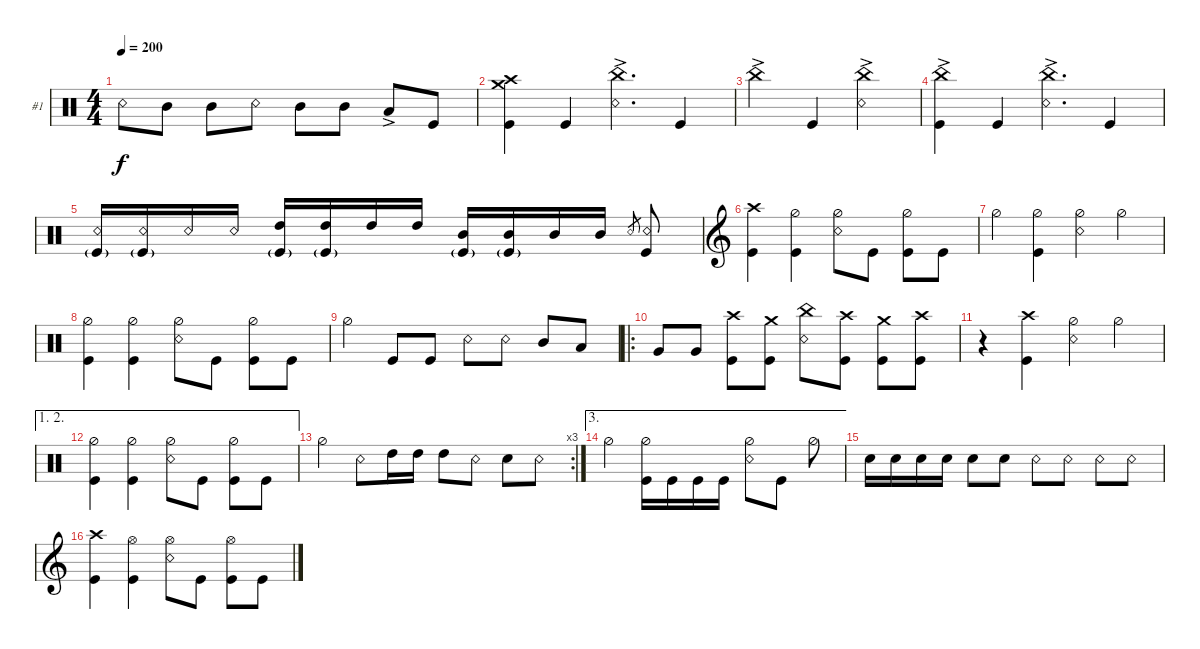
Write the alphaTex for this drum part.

\bracketExtendMode groupsimilarinstruments
\firstSystemTrackNameOrientation horizontal
\otherSystemsTrackNameOrientation horizontal
\track ("Joey Jordison" "#1") {instrument percussion}
\staff {score}
\articulation defaults
\ts (4 4)
\tempo 200
\clef neutral
\ks c "Snare (rim shot)".8{dy f} "Mid Tom (hit)".8 "Mid Tom (hit)".8 "Snare (rim shot)".8 "Mid Tom (hit)".8 "Mid Tom (hit)".8 "Low Tom (hit)"{ac}.8 "Kick (hit)".8
|
("Kick (hit)" "Crash medium (hit)" "Crash high (hit)").4 "Kick (hit)".4 ("Snare (rim shot)" "China (hit)"{ac}).4{d} "Kick (hit)".4 |
"China (hit)"{ac}.4 "Kick (hit)".4 ("Snare (rim shot)" "China (hit)"{ac}).4 |
("Kick (hit)" "China (hit)"{ac}).4 "Kick (hit)".4 ("Snare (rim shot)" "China (hit)"{ac}).4{d} "Kick (hit)".4 |
("Snare (rim shot)" "Kick (hit)"{g}).16 ("Snare (rim shot)" "Kick (hit)"{g}).16 "Snare (rim shot)".16 "Snare (rim shot)".16 ("High Tom (hit)" "Kick (hit)"{g}).16 ("High Tom (hit)" "Kick (hit)"{g}).16 "High Tom (hit)".16 "High Tom (hit)".16 ("Mid Tom (hit)" "Kick (hit)"{g}).16 ("Mid Tom (hit)" "Kick (hit)"{g}).16 "Mid Tom (hit)".16 "Mid Tom (hit)".16 "Snare (rim shot)".8{gr} ("Snare (rim shot)" "Kick (hit)").8 |
\clef g2
("Kick (hit)" "Crash high (hit)").4 ("Hi-Hat (half)" "Kick (hit)").4 ("Hi-Hat (half)" "Snare (rim shot)").8 "Kick (hit)".8 ("Hi-Hat (half)" "Kick (hit)").8 "Kick (hit)".8 |
"Hi-Hat (half)".4 ("Hi-Hat (half)" "Kick (hit)").4 ("Hi-Hat (half)" "Snare (rim shot)").4 "Hi-Hat (half)".4 |
\clef neutral
("Kick (hit)" "Hi-Hat (half)").4 ("Hi-Hat (half)" "Kick (hit)").4 ("Hi-Hat (half)" "Snare (rim shot)").8 "Kick (hit)".8 ("Hi-Hat (half)" "Kick (hit)").8 "Kick (hit)".8 |
"Hi-Hat (half)".4 "Kick (hit)".8 "Kick (hit)".8 "Snare (rim shot)".8 "Snare (rim shot)".8 "Mid Tom (hit)".8 "Low Tom (hit)".8 |
\ro "Very Low Tom (hit)".8 "Very Low Tom (hit)".8
("Kick (hit)" "Crash high (hit)").8 ("Kick (hit)" "Crash medium (hit)").8 ("Snare (rim shot)" "China (hit)").8 ("Kick (hit)" "Crash high (hit)").8 ("Kick (hit)" "Crash medium (hit)").8 ("Kick (hit)" "Crash high (hit)").8 |
r.4 ("Kick (hit)" "Crash high (hit)").4 ("Hi-Hat (half)" "Snare (rim shot)").4 "Hi-Hat (half)".4 |
\ae (1 2)
("Kick (hit)" "Hi-Hat (half)").4 ("Hi-Hat (half)" "Kick (hit)").4 ("Hi-Hat (half)" "Snare (rim shot)").8 "Kick (hit)".8 ("Hi-Hat (half)" "Kick (hit)").8 "Kick (hit)".8 |
\rc 3 "Hi-Hat (half)".4 "Snare (rim shot)".8 "High Tom (hit)".16 "High Tom (hit)".16 "High Tom (hit)".8 "Snare (rim shot)".8 "Snare (hit) 2".8 "Snare (rim shot)".8
|
\ae 3 "Hi-Hat (half)".4
("Kick (hit)" "Hi-Hat (half)").16 "Kick (hit)".16 "Kick (hit)".16 "Kick (hit)".16 ("Snare (rim shot)" "Hi-Hat (half)").8 "Kick (hit)".8 "Hi-Hat (half)".8 |
"Snare (hit) 2".16 "Snare (hit) 2".16 "Snare (hit) 2".16 "Snare (hit) 2".16 "Snare (hit) 2".8 "Snare (hit) 2".8 "Snare (rim shot)".8 "Snare (rim shot)".8 "Snare (rim shot)".8 "Snare (rim shot)".8 |
\clef g2
("Kick (hit)" "Crash high (hit)").4 ("Hi-Hat (open)" "Kick (hit)").4 ("Hi-Hat (open)" "Snare (rim shot)").8 "Kick (hit)".8 ("Hi-Hat (open)" "Kick (hit)").8 "Kick (hit)".8
